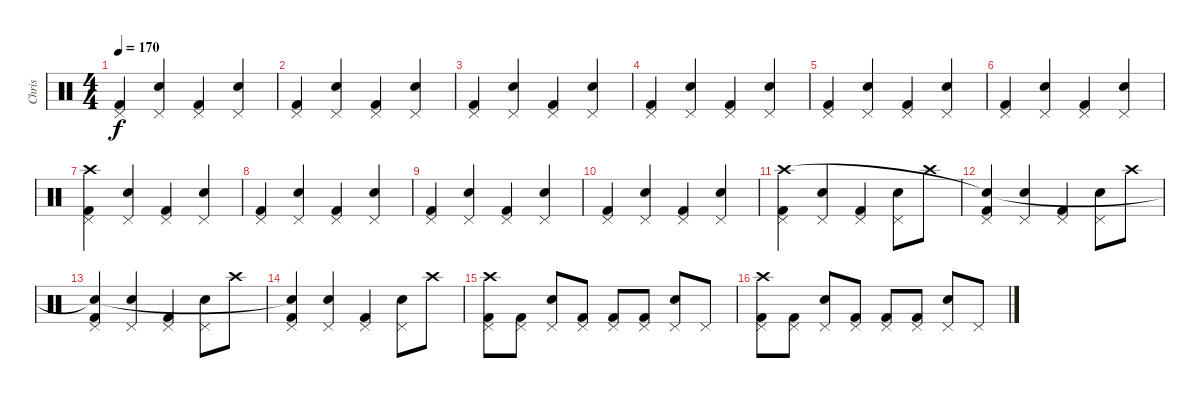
\track ("Chris" "Chris") {instrument percussion}
\staff {score}
\articulation defaults
\ts (4 4)
\tempo 170
\clef neutral
\ks c
("Pedal Hi-Hat (hit)" "Kick (hit) 2").4{dy f} ("Pedal Hi-Hat (hit)" "Electric Snare (hit)").4 ("Pedal Hi-Hat (hit)" "Kick (hit) 2").4 ("Pedal Hi-Hat (hit)" "Electric Snare (hit)").4 |
("Pedal Hi-Hat (hit)" "Kick (hit) 2").4 ("Pedal Hi-Hat (hit)" "Electric Snare (hit)").4 ("Pedal Hi-Hat (hit)" "Kick (hit) 2").4 ("Pedal Hi-Hat (hit)" "Electric Snare (hit)").4 |
("Pedal Hi-Hat (hit)" "Kick (hit) 2").4 ("Pedal Hi-Hat (hit)" "Electric Snare (hit)").4 ("Pedal Hi-Hat (hit)" "Kick (hit) 2").4 ("Pedal Hi-Hat (hit)" "Electric Snare (hit)").4 |
("Pedal Hi-Hat (hit)" "Kick (hit) 2").4 ("Pedal Hi-Hat (hit)" "Electric Snare (hit)").4 ("Pedal Hi-Hat (hit)" "Kick (hit) 2").4 ("Pedal Hi-Hat (hit)" "Electric Snare (hit)").4 |
("Pedal Hi-Hat (hit)" "Kick (hit) 2").4 ("Pedal Hi-Hat (hit)" "Electric Snare (hit)").4 ("Pedal Hi-Hat (hit)" "Kick (hit) 2").4 ("Pedal Hi-Hat (hit)" "Electric Snare (hit)").4 |
("Pedal Hi-Hat (hit)" "Kick (hit) 2").4 ("Pedal Hi-Hat (hit)" "Electric Snare (hit)").4 ("Pedal Hi-Hat (hit)" "Kick (hit) 2").4 ("Pedal Hi-Hat (hit)" "Electric Snare (hit)").4 |
("Pedal Hi-Hat (hit)" "Kick (hit) 2" "Crash high (hit)").4 ("Pedal Hi-Hat (hit)" "Electric Snare (hit)").4 ("Pedal Hi-Hat (hit)" "Kick (hit) 2").4 ("Pedal Hi-Hat (hit)" "Electric Snare (hit)").4 |
("Pedal Hi-Hat (hit)" "Kick (hit) 2").4 ("Pedal Hi-Hat (hit)" "Electric Snare (hit)").4 ("Pedal Hi-Hat (hit)" "Kick (hit) 2").4 ("Pedal Hi-Hat (hit)" "Electric Snare (hit)").4 |
("Pedal Hi-Hat (hit)" "Kick (hit) 2").4 ("Pedal Hi-Hat (hit)" "Electric Snare (hit)").4 ("Pedal Hi-Hat (hit)" "Kick (hit) 2").4 ("Pedal Hi-Hat (hit)" "Electric Snare (hit)").4 |
("Pedal Hi-Hat (hit)" "Kick (hit) 2").4 ("Pedal Hi-Hat (hit)" "Electric Snare (hit)").4 ("Pedal Hi-Hat (hit)" "Kick (hit) 2").4 ("Pedal Hi-Hat (hit)" "Electric Snare (hit)").4 |
("Pedal Hi-Hat (hit)" "Kick (hit) 2" "Crash high (hit)").4 ("Pedal Hi-Hat (hit)" "Electric Snare (hit)").4 ("Pedal Hi-Hat (hit)" "Kick (hit) 2").4 ("Pedal Hi-Hat (hit)" "Electric Snare (hit)").8 "Crash high (hit)".8 |
("Pedal Hi-Hat (hit)" "Kick (hit) 2" "Snare (hit)"{t}).4 ("Pedal Hi-Hat (hit)" "Electric Snare (hit)").4 ("Pedal Hi-Hat (hit)" "Kick (hit) 2").4 ("Pedal Hi-Hat (hit)" "Electric Snare (hit)").8 "Crash high (hit)".8 |
("Pedal Hi-Hat (hit)" "Kick (hit) 2" "Snare (hit)"{t}).4 ("Pedal Hi-Hat (hit)" "Electric Snare (hit)").4 ("Pedal Hi-Hat (hit)" "Kick (hit) 2").4 ("Pedal Hi-Hat (hit)" "Electric Snare (hit)").8 "Crash high (hit)".8 |
("Pedal Hi-Hat (hit)" "Kick (hit) 2" "Snare (hit)"{t}).4 ("Pedal Hi-Hat (hit)" "Electric Snare (hit)").4 ("Pedal Hi-Hat (hit)" "Kick (hit) 2").4 ("Pedal Hi-Hat (hit)" "Electric Snare (hit)").8 "Crash high (hit)".8 |
("Pedal Hi-Hat (hit)" "Kick (hit) 2" "Crash high (hit)").8 ("Pedal Hi-Hat (hit)" "Kick (hit) 2").8 ("Pedal Hi-Hat (hit)" "Electric Snare (hit)").8 ("Pedal Hi-Hat (hit)" "Kick (hit) 2").8 ("Pedal Hi-Hat (hit)" "Kick (hit) 2").8 ("Pedal Hi-Hat (hit)" "Kick (hit) 2").8 ("Pedal Hi-Hat (hit)" "Electric Snare (hit)").8 "Pedal Hi-Hat (hit)".8 |
("Pedal Hi-Hat (hit)" "Kick (hit) 2" "Crash high (hit)").8 ("Pedal Hi-Hat (hit)" "Kick (hit) 2").8 ("Pedal Hi-Hat (hit)" "Electric Snare (hit)").8 ("Pedal Hi-Hat (hit)" "Kick (hit) 2").8 ("Pedal Hi-Hat (hit)" "Kick (hit) 2").8 ("Pedal Hi-Hat (hit)" "Kick (hit) 2").8 ("Pedal Hi-Hat (hit)" "Electric Snare (hit)").8 "Pedal Hi-Hat (hit)".8
